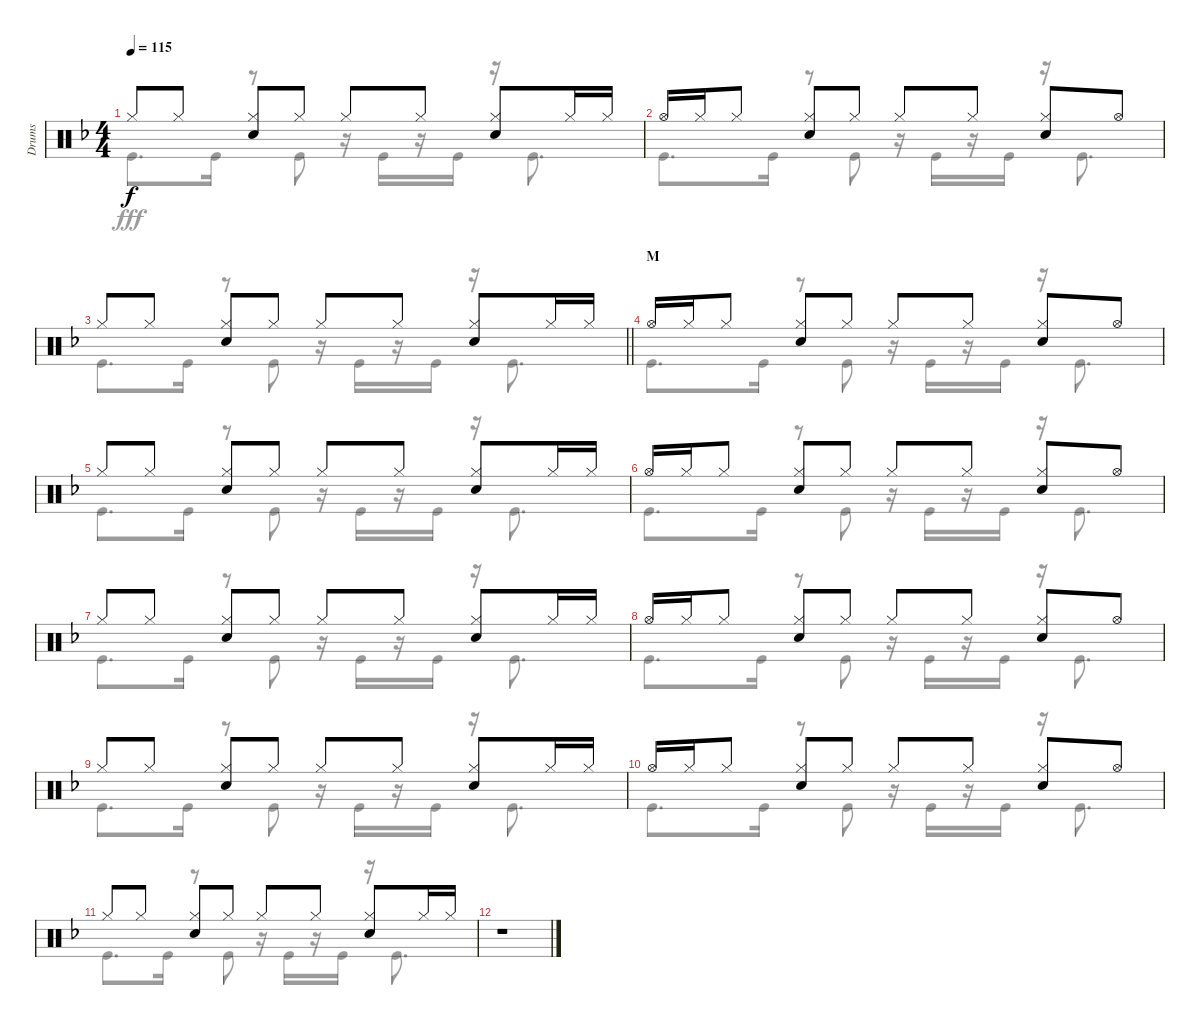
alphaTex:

\track ("Drums" "Drums") {instrument percussion}
\staff {score}
\articulation defaults
\voice
\ts (4 4)
\tempo 115
\clef neutral
\ks f "Hi-Hat (closed)".8{dy f} "Hi-Hat (closed)".8
("Hi-Hat (closed)" "Snare (hit) 2").8 "Hi-Hat (closed)".8 "Hi-Hat (closed)".8 "Hi-Hat (closed)".8 ("Hi-Hat (closed)" "Snare (hit) 2").8 "Hi-Hat (closed)".16 "Hi-Hat (closed)".16 |
"Hi-Hat (open)".16 "Hi-Hat (closed)".16 "Hi-Hat (closed)".8 ("Hi-Hat (closed)" "Snare (hit) 2").8 "Hi-Hat (closed)".8 "Hi-Hat (closed)".8 "Hi-Hat (closed)".8 ("Hi-Hat (closed)" "Snare (hit) 2").8 "Hi-Hat (open)".8 |
\barLineRight lightlight "Hi-Hat (closed)".8 "Hi-Hat (closed)".8
("Hi-Hat (closed)" "Snare (hit) 2").8 "Hi-Hat (closed)".8 "Hi-Hat (closed)".8 "Hi-Hat (closed)".8 ("Hi-Hat (closed)" "Snare (hit) 2").8 "Hi-Hat (closed)".16 "Hi-Hat (closed)".16 |
\section ("" "M")
"Hi-Hat (open)".16 "Hi-Hat (closed)".16 "Hi-Hat (closed)".8 ("Hi-Hat (closed)" "Snare (hit) 2").8 "Hi-Hat (closed)".8 "Hi-Hat (closed)".8 "Hi-Hat (closed)".8 ("Hi-Hat (closed)" "Snare (hit) 2").8 "Hi-Hat (open)".8 |
"Hi-Hat (closed)".8 "Hi-Hat (closed)".8 ("Hi-Hat (closed)" "Snare (hit) 2").8 "Hi-Hat (closed)".8 "Hi-Hat (closed)".8 "Hi-Hat (closed)".8 ("Hi-Hat (closed)" "Snare (hit) 2").8 "Hi-Hat (closed)".16 "Hi-Hat (closed)".16 |
"Hi-Hat (open)".16 "Hi-Hat (closed)".16 "Hi-Hat (closed)".8 ("Hi-Hat (closed)" "Snare (hit) 2").8 "Hi-Hat (closed)".8 "Hi-Hat (closed)".8 "Hi-Hat (closed)".8 ("Hi-Hat (closed)" "Snare (hit) 2").8 "Hi-Hat (open)".8 |
"Hi-Hat (closed)".8 "Hi-Hat (closed)".8 ("Hi-Hat (closed)" "Snare (hit) 2").8 "Hi-Hat (closed)".8 "Hi-Hat (closed)".8 "Hi-Hat (closed)".8 ("Hi-Hat (closed)" "Snare (hit) 2").8 "Hi-Hat (closed)".16 "Hi-Hat (closed)".16 |
"Hi-Hat (open)".16 "Hi-Hat (closed)".16 "Hi-Hat (closed)".8 ("Hi-Hat (closed)" "Snare (hit) 2").8 "Hi-Hat (closed)".8 "Hi-Hat (closed)".8 "Hi-Hat (closed)".8 ("Hi-Hat (closed)" "Snare (hit) 2").8 "Hi-Hat (open)".8 |
"Hi-Hat (closed)".8 "Hi-Hat (closed)".8 ("Hi-Hat (closed)" "Snare (hit) 2").8 "Hi-Hat (closed)".8 "Hi-Hat (closed)".8 "Hi-Hat (closed)".8 ("Hi-Hat (closed)" "Snare (hit) 2").8 "Hi-Hat (closed)".16 "Hi-Hat (closed)".16 |
"Hi-Hat (open)".16 "Hi-Hat (closed)".16 "Hi-Hat (closed)".8 ("Hi-Hat (closed)" "Snare (hit) 2").8 "Hi-Hat (closed)".8 "Hi-Hat (closed)".8 "Hi-Hat (closed)".8 ("Hi-Hat (closed)" "Snare (hit) 2").8 "Hi-Hat (open)".8 |
"Hi-Hat (closed)".8 "Hi-Hat (closed)".8 ("Hi-Hat (closed)" "Snare (hit) 2").8 "Hi-Hat (closed)".8 "Hi-Hat (closed)".8 "Hi-Hat (closed)".8 ("Hi-Hat (closed)" "Snare (hit) 2").8 "Hi-Hat (closed)".16 "Hi-Hat (closed)".16 |
r.1
\voice
\clef neutral
\ottava regular
\simile none
\ks f "Kick (hit)".8{d dy fff} "Kick (hit)".16
r.8 "Kick (hit)".8 r.16 "Kick (hit)".16 r.16 "Kick (hit)".16 r.16 "Kick (hit)".8{d} |
"Kick (hit)".8{d} "Kick (hit)".16 r.8 "Kick (hit)".8 r.16 "Kick (hit)".16 r.16 "Kick (hit)".16 r.16 "Kick (hit)".8{d} |
\barLineRight lightlight "Kick (hit)".8{d} "Kick (hit)".16
r.8 "Kick (hit)".8 r.16 "Kick (hit)".16 r.16 "Kick (hit)".16 r.16 "Kick (hit)".8{d} |
"Kick (hit)".8{d} "Kick (hit)".16 r.8 "Kick (hit)".8 r.16 "Kick (hit)".16 r.16 "Kick (hit)".16 r.16 "Kick (hit)".8{d} |
"Kick (hit)".8{d} "Kick (hit)".16 r.8 "Kick (hit)".8 r.16 "Kick (hit)".16 r.16 "Kick (hit)".16 r.16 "Kick (hit)".8{d} |
"Kick (hit)".8{d} "Kick (hit)".16 r.8 "Kick (hit)".8 r.16 "Kick (hit)".16 r.16 "Kick (hit)".16 r.16 "Kick (hit)".8{d} |
"Kick (hit)".8{d} "Kick (hit)".16 r.8 "Kick (hit)".8 r.16 "Kick (hit)".16 r.16 "Kick (hit)".16 r.16 "Kick (hit)".8{d} |
"Kick (hit)".8{d} "Kick (hit)".16 r.8 "Kick (hit)".8 r.16 "Kick (hit)".16 r.16 "Kick (hit)".16 r.16 "Kick (hit)".8{d} |
"Kick (hit)".8{d} "Kick (hit)".16 r.8 "Kick (hit)".8 r.16 "Kick (hit)".16 r.16 "Kick (hit)".16 r.16 "Kick (hit)".8{d} |
"Kick (hit)".8{d} "Kick (hit)".16 r.8 "Kick (hit)".8 r.16 "Kick (hit)".16 r.16 "Kick (hit)".16 r.16 "Kick (hit)".8{d} |
"Kick (hit)".8{d} "Kick (hit)".16 r.8 "Kick (hit)".8 r.16 "Kick (hit)".16 r.16 "Kick (hit)".16 r.16 "Kick (hit)".8{d} |
r.1
